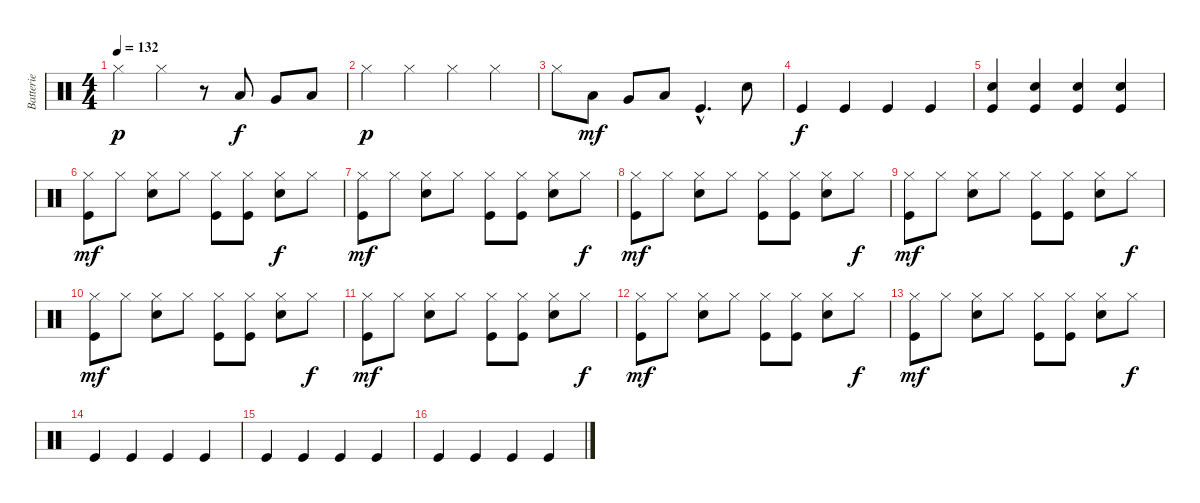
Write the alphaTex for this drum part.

\track ("Batterie" "Batterie") {instrument percussion}
\staff {score}
\articulation defaults
\ts (4 4)
\tempo 132
\clef neutral
\ks c "Hi-Hat (closed)".4{dy p} "Hi-Hat (closed)".4
r.8 "Low Tom (hit)".8{dy f} "Very Low Tom (hit)".8 "Low Floor Tom (hit)".8 |
"Hi-Hat (closed)".4{dy p} "Hi-Hat (closed)".4 "Hi-Hat (closed)".4 "Hi-Hat (closed)".4 |
"Hi-Hat (closed)".8 "Low Floor Tom (hit)".8{dy mf} "Very Low Tom (hit)".8 "Low Tom (hit)".8 "Kick (hit)"{hac}.4{d} "Snare (hit) 2".8 |
"Kick (hit)".4{dy f} "Kick (hit)".4 "Kick (hit)".4 "Kick (hit)".4 |
("Snare (hit) 2" "Kick (hit)").4 ("Snare (hit) 2" "Kick (hit)").4 ("Snare (hit) 2" "Kick (hit)").4 ("Snare (hit) 2" "Kick (hit)").4 |
("Hi-Hat (closed)" "Kick (hit)").8{dy mf} "Hi-Hat (closed)".8 ("Hi-Hat (closed)" "Snare (hit) 2").8 "Hi-Hat (closed)".8 ("Hi-Hat (closed)" "Kick (hit)").8 ("Hi-Hat (closed)" "Kick (hit)").8 ("Hi-Hat (closed)" "Snare (hit) 2").8{dy f} "Hi-Hat (closed)".8 |
("Hi-Hat (closed)" "Kick (hit)").8{dy mf} "Hi-Hat (closed)".8 ("Hi-Hat (closed)" "Snare (hit) 2").8 "Hi-Hat (closed)".8 ("Hi-Hat (closed)" "Kick (hit)").8 ("Hi-Hat (closed)" "Kick (hit)").8 ("Hi-Hat (closed)" "Snare (hit) 2").8 "Hi-Hat (closed)".8{dy f} |
("Hi-Hat (closed)" "Kick (hit)").8{dy mf} "Hi-Hat (closed)".8 ("Hi-Hat (closed)" "Snare (hit) 2").8 "Hi-Hat (closed)".8 ("Hi-Hat (closed)" "Kick (hit)").8 ("Hi-Hat (closed)" "Kick (hit)").8 ("Hi-Hat (closed)" "Snare (hit) 2").8 "Hi-Hat (closed)".8{dy f} |
("Hi-Hat (closed)" "Kick (hit)").8{dy mf} "Hi-Hat (closed)".8 ("Hi-Hat (closed)" "Snare (hit) 2").8 "Hi-Hat (closed)".8 ("Hi-Hat (closed)" "Kick (hit)").8 ("Hi-Hat (closed)" "Kick (hit)").8 ("Hi-Hat (closed)" "Snare (hit) 2").8 "Hi-Hat (closed)".8{dy f} |
("Hi-Hat (closed)" "Kick (hit)").8{dy mf} "Hi-Hat (closed)".8 ("Hi-Hat (closed)" "Snare (hit) 2").8 "Hi-Hat (closed)".8 ("Hi-Hat (closed)" "Kick (hit)").8 ("Hi-Hat (closed)" "Kick (hit)").8 ("Hi-Hat (closed)" "Snare (hit) 2").8 "Hi-Hat (closed)".8{dy f} |
("Hi-Hat (closed)" "Kick (hit)").8{dy mf} "Hi-Hat (closed)".8 ("Hi-Hat (closed)" "Snare (hit) 2").8 "Hi-Hat (closed)".8 ("Hi-Hat (closed)" "Kick (hit)").8 ("Hi-Hat (closed)" "Kick (hit)").8 ("Hi-Hat (closed)" "Snare (hit) 2").8 "Hi-Hat (closed)".8{dy f} |
("Hi-Hat (closed)" "Kick (hit)").8{dy mf} "Hi-Hat (closed)".8 ("Hi-Hat (closed)" "Snare (hit) 2").8 "Hi-Hat (closed)".8 ("Hi-Hat (closed)" "Kick (hit)").8 ("Hi-Hat (closed)" "Kick (hit)").8 ("Hi-Hat (closed)" "Snare (hit) 2").8 "Hi-Hat (closed)".8{dy f} |
("Hi-Hat (closed)" "Kick (hit)").8{dy mf} "Hi-Hat (closed)".8 ("Hi-Hat (closed)" "Snare (hit) 2").8 "Hi-Hat (closed)".8 ("Hi-Hat (closed)" "Kick (hit)").8 ("Hi-Hat (closed)" "Kick (hit)").8 ("Hi-Hat (closed)" "Snare (hit) 2").8 "Hi-Hat (closed)".8{dy f} |
"Kick (hit)".4 "Kick (hit)".4 "Kick (hit)".4 "Kick (hit)".4 |
"Kick (hit)".4 "Kick (hit)".4 "Kick (hit)".4 "Kick (hit)".4 |
"Kick (hit)".4 "Kick (hit)".4 "Kick (hit)".4 "Kick (hit)".4
